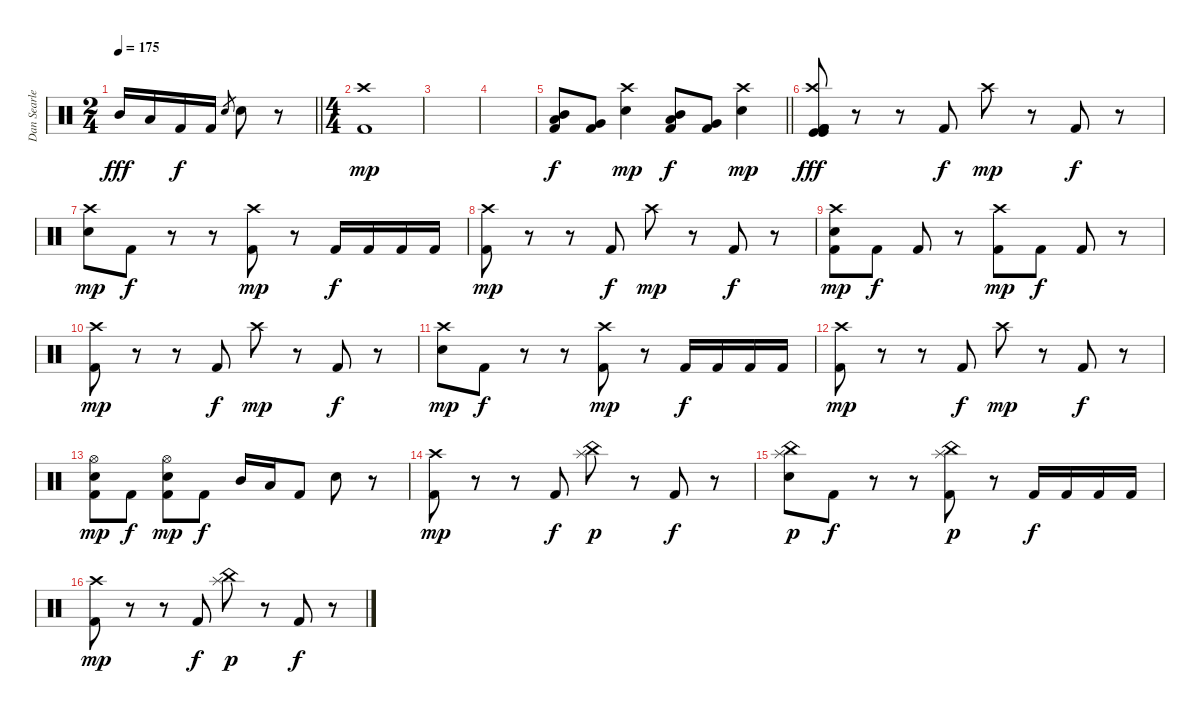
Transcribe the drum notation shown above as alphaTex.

\track ("Dan Searle" "Dan Searle") {instrument percussion}
\staff {score}
\articulation defaults
\ts (2 4)
\tempo 175
\clef neutral
\barLineRight lightlight
\ks c "Mid Tom (hit)".16{dy fff} "Low Tom (hit)".16 "Kick (hit) 2".16{dy f} "Kick (hit) 2".16 "Electric Snare (hit)".8{gr} "Electric Snare (hit)".8
r.8 |
\ts (4 4)
("Crash high (hit)" "Kick (hit) 2").1{dy mp} |
|
|
\barLineRight lightlight
("Mid Tom (hit)" "Low Tom (hit)" "Kick (hit) 2").8{dy f} ("Very Low Tom (hit)" "Kick (hit) 2").8 ("Crash high (hit)" "Electric Snare (hit)").4{dy mp} ("Mid Tom (hit)" "Low Tom (hit)" "Kick (hit) 2").8{dy f} ("Very Low Tom (hit)" "Kick (hit) 2").8 ("Crash high (hit)" "Electric Snare (hit)").4{dy mp} |
("Crash high (hit)" "Kick (hit)" "Kick (hit)" "Kick (hit) 2" "Kick (hit) 2" "Kick (hit) 2").8{dy fff} r.8 r.8 "Kick (hit) 2".8{dy f} "Crash high (hit)".8{dy mp} r.8 "Kick (hit) 2".8{dy f} r.8 |
("Crash high (hit)" "Electric Snare (hit)").8{dy mp} "Kick (hit) 2".8{dy f} r.8 r.8 ("Crash high (hit)" "Kick (hit) 2").8{dy mp} r.8 "Kick (hit) 2".16{dy f} "Kick (hit) 2".16 "Kick (hit) 2".16 "Kick (hit) 2".16 |
("Crash high (hit)" "Kick (hit) 2").8{dy mp} r.8 r.8 "Kick (hit) 2".8{dy f} "Crash high (hit)".8{dy mp} r.8 "Kick (hit) 2".8{dy f} r.8 |
("Crash high (hit)" "Electric Snare (hit)" "Kick (hit) 2").8{dy mp} "Kick (hit) 2".8{dy f} "Kick (hit) 2".8 r.8 ("Crash high (hit)" "Kick (hit) 2").8{dy mp} "Kick (hit) 2".8{dy f} "Kick (hit) 2".8 r.8 |
("Crash high (hit)" "Kick (hit) 2").8{dy mp} r.8 r.8 "Kick (hit) 2".8{dy f} "Crash high (hit)".8{dy mp} r.8 "Kick (hit) 2".8{dy f} r.8 |
("Crash high (hit)" "Electric Snare (hit)").8{dy mp} "Kick (hit) 2".8{dy f} r.8 r.8 ("Crash high (hit)" "Kick (hit) 2").8{dy mp} r.8 "Kick (hit) 2".16{dy f} "Kick (hit) 2".16 "Kick (hit) 2".16 "Kick (hit) 2".16 |
("Crash high (hit)" "Kick (hit) 2").8{dy mp} r.8 r.8 "Kick (hit) 2".8{dy f} "Crash high (hit)".8{dy mp} r.8 "Kick (hit) 2".8{dy f} r.8 |
("Hi-Hat (open)" "Electric Snare (hit)" "Kick (hit) 2").8{dy mp} "Kick (hit) 2".8{dy f} ("Hi-Hat (open)" "Electric Snare (hit)" "Kick (hit) 2").8{dy mp} "Kick (hit) 2".8{dy f} "Mid Tom (hit)".16 "Low Tom (hit)".16 "Kick (hit) 2".8 "Electric Snare (hit)".8 r.8 |
("Crash high (hit)" "Kick (hit) 2").8{dy mp} r.8 r.8 "Kick (hit) 2".8{dy f} ("China (hit)" "Splash (hit)").8{dy p} r.8 "Kick (hit) 2".8{dy f} r.8 |
("China (hit)" "Splash (hit)" "Electric Snare (hit)").8{dy p} "Kick (hit) 2".8{dy f} r.8 r.8 ("China (hit)" "Splash (hit)" "Kick (hit) 2").8{dy p} r.8 "Kick (hit) 2".16{dy f} "Kick (hit) 2".16 "Kick (hit) 2".16 "Kick (hit) 2".16 |
("Crash high (hit)" "Kick (hit) 2").8{dy mp} r.8 r.8 "Kick (hit) 2".8{dy f} ("China (hit)" "Splash (hit)").8{dy p} r.8 "Kick (hit) 2".8{dy f} r.8
